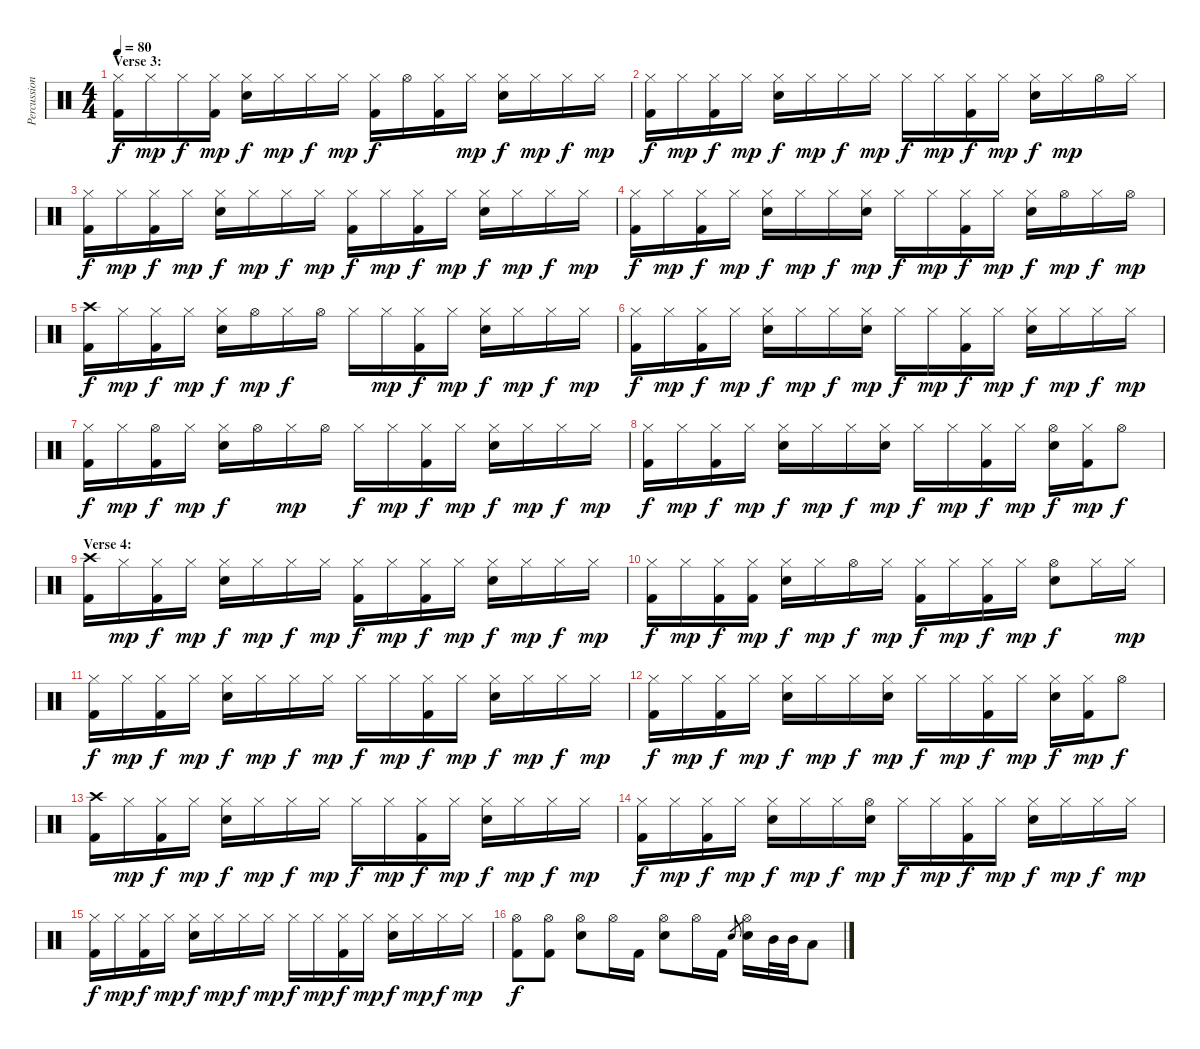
\track ("Percussion" "Percussion") {instrument percussion}
\staff {score}
\articulation defaults
\ts (4 4)
\section ("" "Verse 3:")
\tempo 80
\clef neutral
\ks c
("Hi-Hat (closed)" "Kick (hit) 2").16{dy f} "Hi-Hat (closed)".16{dy mp} "Hi-Hat (closed)".16{dy f} ("Hi-Hat (closed)" "Kick (hit) 2").16{dy mp} ("Hi-Hat (closed)" "Electric Snare (hit)").16{dy f} "Hi-Hat (closed)".16{dy mp} "Hi-Hat (closed)".16{dy f} "Hi-Hat (closed)".16{dy mp} ("Hi-Hat (closed)" "Kick (hit) 2").16{dy f} "Hi-Hat (open)".16 ("Hi-Hat (closed)" "Kick (hit) 2").16 "Hi-Hat (closed)".16{dy mp} ("Hi-Hat (closed)" "Electric Snare (hit)").16{dy f} "Hi-Hat (closed)".16{dy mp} "Hi-Hat (closed)".16{dy f} "Hi-Hat (closed)".16{dy mp} |
("Hi-Hat (closed)" "Kick (hit) 2").16{dy f} "Hi-Hat (closed)".16{dy mp} ("Hi-Hat (closed)" "Kick (hit) 2").16{dy f} "Hi-Hat (closed)".16{dy mp} ("Hi-Hat (closed)" "Electric Snare (hit)").16{dy f} "Hi-Hat (closed)".16{dy mp} "Hi-Hat (closed)".16{dy f} "Hi-Hat (closed)".16{dy mp} "Hi-Hat (closed)".16{dy f} "Hi-Hat (closed)".16{dy mp} ("Hi-Hat (closed)" "Kick (hit) 2").16{dy f} "Hi-Hat (closed)".16{dy mp} ("Hi-Hat (closed)" "Electric Snare (hit)").16{dy f} "Hi-Hat (closed)".16{dy mp} "Hi-Hat (open)".16 "Hi-Hat (closed)".16 |
("Hi-Hat (closed)" "Kick (hit) 2").16{dy f} "Hi-Hat (closed)".16{dy mp} ("Hi-Hat (closed)" "Kick (hit) 2").16{dy f} "Hi-Hat (closed)".16{dy mp} ("Hi-Hat (closed)" "Electric Snare (hit)").16{dy f} "Hi-Hat (closed)".16{dy mp} "Hi-Hat (closed)".16{dy f} "Hi-Hat (closed)".16{dy mp} ("Hi-Hat (closed)" "Kick (hit) 2").16{dy f} "Hi-Hat (closed)".16{dy mp} ("Hi-Hat (closed)" "Kick (hit) 2").16{dy f} "Hi-Hat (closed)".16{dy mp} ("Hi-Hat (closed)" "Electric Snare (hit)").16{dy f} "Hi-Hat (closed)".16{dy mp} "Hi-Hat (closed)".16{dy f} "Hi-Hat (closed)".16{dy mp} |
("Hi-Hat (closed)" "Kick (hit) 2").16{dy f} "Hi-Hat (closed)".16{dy mp} ("Hi-Hat (closed)" "Kick (hit) 2").16{dy f} "Hi-Hat (closed)".16{dy mp} ("Hi-Hat (closed)" "Electric Snare (hit)").16{dy f} "Hi-Hat (closed)".16{dy mp} "Hi-Hat (closed)".16{dy f} ("Hi-Hat (closed)" "Electric Snare (hit)").16{dy mp} "Hi-Hat (closed)".16{dy f} "Hi-Hat (closed)".16{dy mp} ("Hi-Hat (closed)" "Kick (hit) 2").16{dy f} "Hi-Hat (closed)".16{dy mp} ("Hi-Hat (closed)" "Electric Snare (hit)").16{dy f} "Hi-Hat (open)".16{dy mp} "Hi-Hat (closed)".16{dy f} "Hi-Hat (open)".16{dy mp} |
("Crash high (hit)" "Kick (hit) 2").16{dy f} "Hi-Hat (closed)".16{dy mp} ("Hi-Hat (closed)" "Kick (hit) 2").16{dy f} "Hi-Hat (closed)".16{dy mp} ("Hi-Hat (closed)" "Electric Snare (hit)").16{dy f} "Hi-Hat (open)".16{dy mp} "Hi-Hat (closed)".16{dy f} "Hi-Hat (open)".16 "Hi-Hat (closed)".16 "Hi-Hat (closed)".16{dy mp} ("Hi-Hat (closed)" "Kick (hit) 2").16{dy f} "Hi-Hat (closed)".16{dy mp} ("Hi-Hat (closed)" "Electric Snare (hit)").16{dy f} "Hi-Hat (closed)".16{dy mp} "Hi-Hat (closed)".16{dy f} "Hi-Hat (closed)".16{dy mp} |
("Hi-Hat (closed)" "Kick (hit) 2").16{dy f} "Hi-Hat (closed)".16{dy mp} ("Hi-Hat (closed)" "Kick (hit) 2").16{dy f} "Hi-Hat (closed)".16{dy mp} ("Hi-Hat (closed)" "Electric Snare (hit)").16{dy f} "Hi-Hat (closed)".16{dy mp} "Hi-Hat (closed)".16{dy f} ("Hi-Hat (closed)" "Electric Snare (hit)").16{dy mp} "Hi-Hat (closed)".16{dy f} "Hi-Hat (closed)".16{dy mp} ("Hi-Hat (closed)" "Kick (hit) 2").16{dy f} "Hi-Hat (closed)".16{dy mp} ("Hi-Hat (closed)" "Electric Snare (hit)").16{dy f} "Hi-Hat (closed)".16{dy mp} "Hi-Hat (closed)".16{dy f} "Hi-Hat (closed)".16{dy mp} |
("Hi-Hat (closed)" "Kick (hit) 2").16{dy f} "Hi-Hat (closed)".16{dy mp} ("Hi-Hat (open)" "Kick (hit) 2").16{dy f} "Hi-Hat (closed)".16{dy mp} ("Hi-Hat (closed)" "Electric Snare (hit)").16{dy f} "Hi-Hat (open)".16 "Hi-Hat (closed)".16{dy mp} "Hi-Hat (open)".16 "Hi-Hat (closed)".16{dy f} "Hi-Hat (closed)".16{dy mp} ("Hi-Hat (closed)" "Kick (hit) 2").16{dy f} "Hi-Hat (closed)".16{dy mp} ("Hi-Hat (closed)" "Electric Snare (hit)").16{dy f} "Hi-Hat (closed)".16{dy mp} "Hi-Hat (closed)".16{dy f} "Hi-Hat (closed)".16{dy mp} |
("Hi-Hat (closed)" "Kick (hit) 2").16{dy f} "Hi-Hat (closed)".16{dy mp} ("Hi-Hat (closed)" "Kick (hit) 2").16{dy f} "Hi-Hat (closed)".16{dy mp} ("Hi-Hat (closed)" "Electric Snare (hit)").16{dy f} "Hi-Hat (closed)".16{dy mp} "Hi-Hat (closed)".16{dy f} ("Hi-Hat (closed)" "Electric Snare (hit)").16{dy mp} "Hi-Hat (closed)".16{dy f} "Hi-Hat (closed)".16{dy mp} ("Hi-Hat (closed)" "Kick (hit) 2").16{dy f} "Hi-Hat (closed)".16{dy mp} ("Hi-Hat (open)" "Electric Snare (hit)").16{dy f} ("Hi-Hat (closed)" "Kick (hit) 2").16{dy mp} "Hi-Hat (open)".8{dy f} |
\section ("" "Verse 4:")
("Crash high (hit)" "Kick (hit) 2").16 "Hi-Hat (closed)".16{dy mp} ("Hi-Hat (closed)" "Kick (hit) 2").16{dy f} "Hi-Hat (closed)".16{dy mp} ("Hi-Hat (closed)" "Electric Snare (hit)").16{dy f} "Hi-Hat (closed)".16{dy mp} "Hi-Hat (closed)".16{dy f} "Hi-Hat (closed)".16{dy mp} ("Hi-Hat (closed)" "Kick (hit) 2").16{dy f} "Hi-Hat (closed)".16{dy mp} ("Hi-Hat (closed)" "Kick (hit) 2").16{dy f} "Hi-Hat (closed)".16{dy mp} ("Hi-Hat (closed)" "Electric Snare (hit)").16{dy f} "Hi-Hat (closed)".16{dy mp} "Hi-Hat (closed)".16{dy f} "Hi-Hat (closed)".16{dy mp} |
("Hi-Hat (closed)" "Kick (hit) 2").16{dy f} "Hi-Hat (closed)".16{dy mp} ("Hi-Hat (closed)" "Kick (hit) 2").16{dy f} ("Hi-Hat (closed)" "Kick (hit) 2").16{dy mp} ("Hi-Hat (closed)" "Electric Snare (hit)").16{dy f} "Hi-Hat (closed)".16{dy mp} "Hi-Hat (open)".16{dy f} "Hi-Hat (closed)".16{dy mp} ("Hi-Hat (closed)" "Kick (hit) 2").16{dy f} "Hi-Hat (closed)".16{dy mp} ("Hi-Hat (closed)" "Kick (hit) 2").16{dy f} "Hi-Hat (closed)".16{dy mp} ("Hi-Hat (open)" "Electric Snare (hit)").8{dy f} "Hi-Hat (closed)".16 "Hi-Hat (closed)".16{dy mp} |
("Hi-Hat (closed)" "Kick (hit) 2").16{dy f} "Hi-Hat (closed)".16{dy mp} ("Hi-Hat (closed)" "Kick (hit) 2").16{dy f} "Hi-Hat (closed)".16{dy mp} ("Hi-Hat (closed)" "Electric Snare (hit)").16{dy f} "Hi-Hat (closed)".16{dy mp} "Hi-Hat (closed)".16{dy f} "Hi-Hat (closed)".16{dy mp} "Hi-Hat (closed)".16{dy f} "Hi-Hat (closed)".16{dy mp} ("Hi-Hat (closed)" "Kick (hit) 2").16{dy f} "Hi-Hat (closed)".16{dy mp} ("Hi-Hat (closed)" "Electric Snare (hit)").16{dy f} "Hi-Hat (closed)".16{dy mp} "Hi-Hat (closed)".16{dy f} "Hi-Hat (closed)".16{dy mp} |
("Hi-Hat (closed)" "Kick (hit) 2").16{dy f} "Hi-Hat (closed)".16{dy mp} ("Hi-Hat (closed)" "Kick (hit) 2").16{dy f} "Hi-Hat (closed)".16{dy mp} ("Hi-Hat (closed)" "Electric Snare (hit)").16{dy f} "Hi-Hat (closed)".16{dy mp} "Hi-Hat (closed)".16{dy f} ("Hi-Hat (closed)" "Electric Snare (hit)").16{dy mp} "Hi-Hat (closed)".16{dy f} "Hi-Hat (closed)".16{dy mp} ("Hi-Hat (closed)" "Kick (hit) 2").16{dy f} "Hi-Hat (closed)".16{dy mp} ("Hi-Hat (closed)" "Electric Snare (hit)").16{dy f} ("Hi-Hat (closed)" "Kick (hit) 2").16{dy mp} "Hi-Hat (open)".8{dy f} |
("Crash high (hit)" "Kick (hit) 2").16 "Hi-Hat (closed)".16{dy mp} ("Hi-Hat (closed)" "Kick (hit) 2").16{dy f} "Hi-Hat (closed)".16{dy mp} ("Hi-Hat (closed)" "Electric Snare (hit)").16{dy f} "Hi-Hat (closed)".16{dy mp} "Hi-Hat (closed)".16{dy f} "Hi-Hat (closed)".16{dy mp} "Hi-Hat (closed)".16{dy f} "Hi-Hat (closed)".16{dy mp} ("Hi-Hat (closed)" "Kick (hit) 2").16{dy f} "Hi-Hat (closed)".16{dy mp} ("Hi-Hat (closed)" "Electric Snare (hit)").16{dy f} "Hi-Hat (closed)".16{dy mp} "Hi-Hat (closed)".16{dy f} "Hi-Hat (closed)".16{dy mp} |
("Hi-Hat (closed)" "Kick (hit) 2").16{dy f} "Hi-Hat (closed)".16{dy mp} ("Hi-Hat (closed)" "Kick (hit) 2").16{dy f} "Hi-Hat (closed)".16{dy mp} ("Hi-Hat (closed)" "Electric Snare (hit)").16{dy f} "Hi-Hat (closed)".16{dy mp} "Hi-Hat (closed)".16{dy f} ("Hi-Hat (open)" "Electric Snare (hit)").16{dy mp} "Hi-Hat (closed)".16{dy f} "Hi-Hat (closed)".16{dy mp} ("Hi-Hat (closed)" "Kick (hit) 2").16{dy f} "Hi-Hat (closed)".16{dy mp} ("Hi-Hat (closed)" "Electric Snare (hit)").16{dy f} "Hi-Hat (closed)".16{dy mp} "Hi-Hat (closed)".16{dy f} "Hi-Hat (closed)".16{dy mp} |
("Hi-Hat (closed)" "Kick (hit) 2").16{dy f} "Hi-Hat (closed)".16{dy mp} ("Hi-Hat (closed)" "Kick (hit) 2").16{dy f} "Hi-Hat (closed)".16{dy mp} ("Hi-Hat (closed)" "Electric Snare (hit)").16{dy f} "Hi-Hat (closed)".16{dy mp} "Hi-Hat (closed)".16{dy f} "Hi-Hat (closed)".16{dy mp} "Hi-Hat (closed)".16{dy f} "Hi-Hat (closed)".16{dy mp} ("Hi-Hat (closed)" "Kick (hit) 2").16{dy f} "Hi-Hat (closed)".16{dy mp} ("Hi-Hat (closed)" "Electric Snare (hit)").16{dy f} "Hi-Hat (closed)".16{dy mp} "Hi-Hat (closed)".16{dy f} "Hi-Hat (closed)".16{dy mp} |
("Hi-Hat (open)" "Kick (hit) 2").8{dy f} ("Hi-Hat (open)" "Kick (hit) 2").8 ("Hi-Hat (open)" "Electric Snare (hit)").8 "Hi-Hat (open)".16 "Kick (hit) 2".16 ("Hi-Hat (open)" "Electric Snare (hit)").8 "Hi-Hat (open)".16 "Kick (hit) 2".16 "Electric Snare (hit)".8{gr} ("Hi-Hat (open)" "Electric Snare (hit)").16 "Mid Tom (hit)".32 "Mid Tom (hit)".32 "Low Tom (hit)".8
